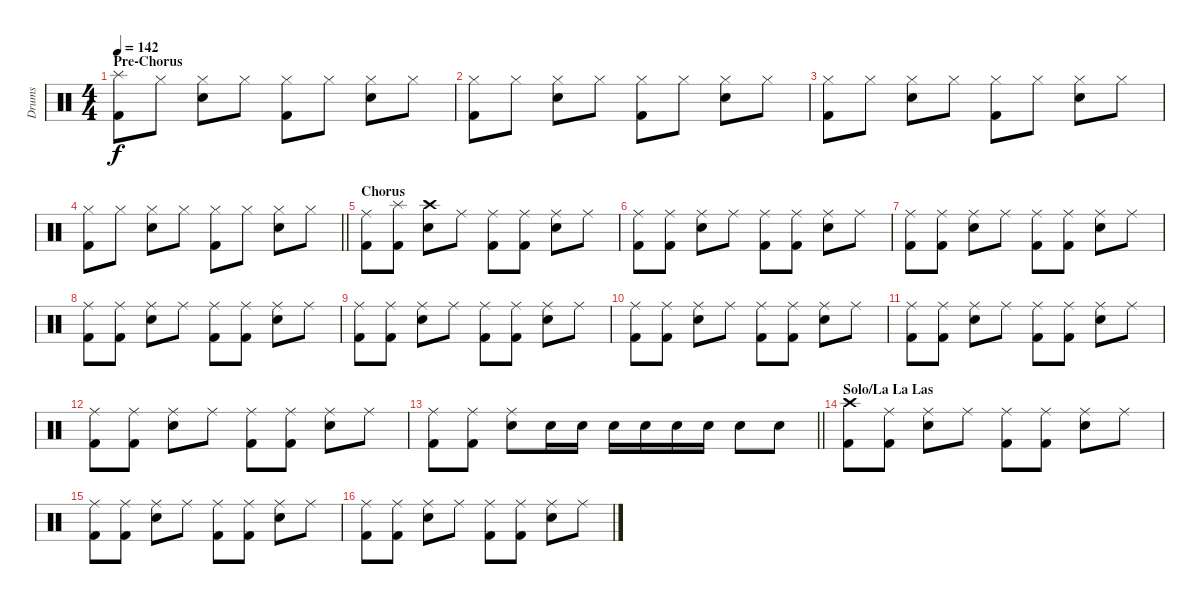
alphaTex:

\track ("Drums" "Drums") {instrument percussion}
\staff {score}
\articulation defaults
\ts (4 4)
\section ("" "Pre-Chorus")
\tempo 142
\clef neutral
\ks c
("Splash (hit)" "Kick (hit) 2").8{dy f} "Hi-Hat (closed)".8 ("Hi-Hat (closed)" "Electric Snare (hit)").8 "Hi-Hat (closed)".8 ("Hi-Hat (closed)" "Kick (hit) 2").8 "Hi-Hat (closed)".8 ("Hi-Hat (closed)" "Electric Snare (hit)").8 "Hi-Hat (closed)".8 |
("Hi-Hat (closed)" "Kick (hit) 2").8 "Hi-Hat (closed)".8 ("Hi-Hat (closed)" "Electric Snare (hit)").8 "Hi-Hat (closed)".8 ("Hi-Hat (closed)" "Kick (hit) 2").8 "Hi-Hat (closed)".8 ("Hi-Hat (closed)" "Electric Snare (hit)").8 "Hi-Hat (closed)".8 |
("Hi-Hat (closed)" "Kick (hit) 2").8 "Hi-Hat (closed)".8 ("Hi-Hat (closed)" "Electric Snare (hit)").8 "Hi-Hat (closed)".8 ("Hi-Hat (closed)" "Kick (hit) 2").8 "Hi-Hat (closed)".8 ("Hi-Hat (closed)" "Electric Snare (hit)").8 "Hi-Hat (closed)".8 |
\barLineRight lightlight
("Hi-Hat (closed)" "Kick (hit) 2").8 "Hi-Hat (closed)".8 ("Hi-Hat (closed)" "Electric Snare (hit)").8 "Hi-Hat (closed)".8 ("Hi-Hat (closed)" "Kick (hit) 2").8 "Hi-Hat (closed)".8 ("Hi-Hat (closed)" "Electric Snare (hit)").8 "Hi-Hat (closed)".8 |
\section ("" "Chorus")
("Ride (middle)" "Kick (hit) 2").8 ("Splash (hit)" "Kick (hit) 2").8 ("Crash high (hit)" "Electric Snare (hit)").8 "Ride (middle)".8 ("Ride (middle)" "Kick (hit) 2").8 ("Ride (middle)" "Kick (hit) 2").8 ("Ride (middle)" "Electric Snare (hit)").8 "Ride (middle)".8 |
("Ride (middle)" "Kick (hit) 2").8 ("Ride (middle)" "Kick (hit) 2").8 ("Ride (middle)" "Electric Snare (hit)").8 "Ride (middle)".8 ("Ride (middle)" "Kick (hit) 2").8 ("Ride (middle)" "Kick (hit) 2").8 ("Ride (middle)" "Electric Snare (hit)").8 "Ride (middle)".8 |
("Ride (middle)" "Kick (hit) 2").8 ("Ride (middle)" "Kick (hit) 2").8 ("Ride (middle)" "Electric Snare (hit)").8 "Ride (middle)".8 ("Ride (middle)" "Kick (hit) 2").8 ("Ride (middle)" "Kick (hit) 2").8 ("Ride (middle)" "Electric Snare (hit)").8 "Ride (middle)".8 |
("Ride (middle)" "Kick (hit) 2").8 ("Ride (middle)" "Kick (hit) 2").8 ("Ride (middle)" "Electric Snare (hit)").8 "Ride (middle)".8 ("Ride (middle)" "Kick (hit) 2").8 ("Ride (middle)" "Kick (hit) 2").8 ("Ride (middle)" "Electric Snare (hit)").8 "Ride (middle)".8 |
("Ride (middle)" "Kick (hit) 2").8 ("Ride (middle)" "Kick (hit) 2").8 ("Ride (middle)" "Electric Snare (hit)").8 "Ride (middle)".8 ("Ride (middle)" "Kick (hit) 2").8 ("Ride (middle)" "Kick (hit) 2").8 ("Ride (middle)" "Electric Snare (hit)").8 "Ride (middle)".8 |
("Ride (middle)" "Kick (hit) 2").8 ("Ride (middle)" "Kick (hit) 2").8 ("Ride (middle)" "Electric Snare (hit)").8 "Ride (middle)".8 ("Ride (middle)" "Kick (hit) 2").8 ("Ride (middle)" "Kick (hit) 2").8 ("Ride (middle)" "Electric Snare (hit)").8 "Ride (middle)".8 |
("Ride (middle)" "Kick (hit) 2").8 ("Ride (middle)" "Kick (hit) 2").8 ("Ride (middle)" "Electric Snare (hit)").8 "Ride (middle)".8 ("Ride (middle)" "Kick (hit) 2").8 ("Ride (middle)" "Kick (hit) 2").8 ("Ride (middle)" "Electric Snare (hit)").8 "Ride (middle)".8 |
("Ride (middle)" "Kick (hit) 2").8 ("Ride (middle)" "Kick (hit) 2").8 ("Ride (middle)" "Electric Snare (hit)").8 "Ride (middle)".8 ("Ride (middle)" "Kick (hit) 2").8 ("Ride (middle)" "Kick (hit) 2").8 ("Ride (middle)" "Electric Snare (hit)").8 "Ride (middle)".8 |
\barLineRight lightlight
("Ride (middle)" "Kick (hit) 2").8 ("Ride (middle)" "Kick (hit) 2").8 ("Ride (middle)" "Electric Snare (hit)").8 "Electric Snare (hit)".16 "Electric Snare (hit)".16 "Electric Snare (hit)".16 "Electric Snare (hit)".16 "Electric Snare (hit)".16 "Electric Snare (hit)".16 "Electric Snare (hit)".8 "Electric Snare (hit)".8 |
\section ("" "Solo/La La Las")
("Crash high (hit)" "Kick (hit) 2").8 ("Ride (middle)" "Kick (hit) 2").8 ("Ride (middle)" "Electric Snare (hit)").8 "Ride (middle)".8 ("Ride (middle)" "Kick (hit) 2").8 ("Ride (middle)" "Kick (hit) 2").8 ("Ride (middle)" "Electric Snare (hit)").8 "Ride (middle)".8 |
("Ride (middle)" "Kick (hit) 2").8 ("Ride (middle)" "Kick (hit) 2").8 ("Ride (middle)" "Electric Snare (hit)").8 "Ride (middle)".8 ("Ride (middle)" "Kick (hit) 2").8 ("Ride (middle)" "Kick (hit) 2").8 ("Ride (middle)" "Electric Snare (hit)").8 "Ride (middle)".8 |
("Ride (middle)" "Kick (hit) 2").8 ("Ride (middle)" "Kick (hit) 2").8 ("Ride (middle)" "Electric Snare (hit)").8 "Ride (middle)".8 ("Ride (middle)" "Kick (hit) 2").8 ("Ride (middle)" "Kick (hit) 2").8 ("Ride (middle)" "Electric Snare (hit)").8 "Ride (middle)".8
